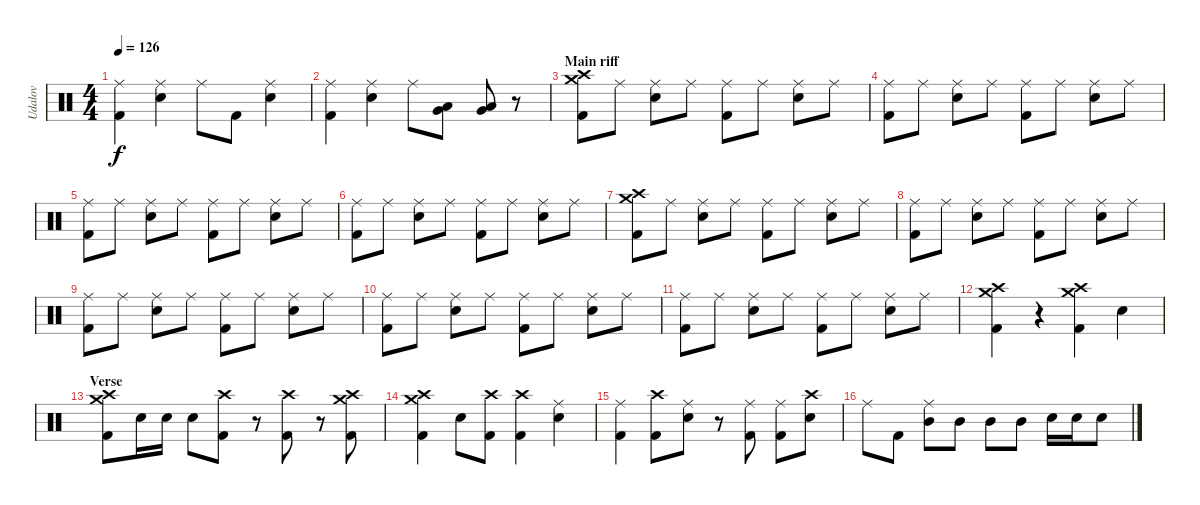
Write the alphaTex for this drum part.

\track ("Udalov" "Udalov") {instrument percussion}
\staff {score}
\articulation defaults
\ts (4 4)
\tempo 126
\clef neutral
\ks c
("Kick (hit) 2" "Ride (middle)").4{dy f} ("Snare (hit) 2" "Ride (middle)").4 "Ride (middle)".8 "Kick (hit) 2".8 ("Snare (hit) 2" "Ride (middle)").4 |
("Kick (hit) 2" "Ride (middle)").4 ("Snare (hit) 2" "Ride (middle)").4 "Ride (middle)".8 ("Low Tom (hit)" "Very Low Tom (hit)").8 ("Low Tom (hit)" "Very Low Tom (hit)").8 r.8 |
\section ("" "Main riff")
("Kick (hit) 2" "Crash high (hit)" "Crash medium (hit)").8 "Ride (middle)".8 ("Snare (hit) 2" "Ride (middle)").8 "Ride (middle)".8 ("Kick (hit) 2" "Ride (middle)").8 "Ride (middle)".8 ("Snare (hit) 2" "Ride (middle)").8 "Ride (middle)".8 |
("Kick (hit) 2" "Ride (middle)").8 "Ride (middle)".8 ("Snare (hit) 2" "Ride (middle)").8 "Ride (middle)".8 ("Kick (hit) 2" "Ride (middle)").8 "Ride (middle)".8 ("Snare (hit) 2" "Ride (middle)").8 "Ride (middle)".8 |
("Kick (hit) 2" "Ride (middle)").8 "Ride (middle)".8 ("Snare (hit) 2" "Ride (middle)").8 "Ride (middle)".8 ("Kick (hit) 2" "Ride (middle)").8 "Ride (middle)".8 ("Snare (hit) 2" "Ride (middle)").8 "Ride (middle)".8 |
("Kick (hit) 2" "Ride (middle)").8 "Ride (middle)".8 ("Snare (hit) 2" "Ride (middle)").8 "Ride (middle)".8 ("Kick (hit) 2" "Ride (middle)").8 "Ride (middle)".8 ("Snare (hit) 2" "Ride (middle)").8 "Ride (middle)".8 |
("Kick (hit) 2" "Crash high (hit)" "Crash medium (hit)").8 "Ride (middle)".8 ("Snare (hit) 2" "Ride (middle)").8 "Ride (middle)".8 ("Kick (hit) 2" "Ride (middle)").8 "Ride (middle)".8 ("Snare (hit) 2" "Ride (middle)").8 "Ride (middle)".8 |
("Kick (hit) 2" "Ride (middle)").8 "Ride (middle)".8 ("Snare (hit) 2" "Ride (middle)").8 "Ride (middle)".8 ("Kick (hit) 2" "Ride (middle)").8 "Ride (middle)".8 ("Snare (hit) 2" "Ride (middle)").8 "Ride (middle)".8 |
("Kick (hit) 2" "Ride (middle)").8 "Ride (middle)".8 ("Snare (hit) 2" "Ride (middle)").8 "Ride (middle)".8 ("Kick (hit) 2" "Ride (middle)").8 "Ride (middle)".8 ("Snare (hit) 2" "Ride (middle)").8 "Ride (middle)".8 |
("Kick (hit) 2" "Ride (middle)").8 "Ride (middle)".8 ("Snare (hit) 2" "Ride (middle)").8 "Ride (middle)".8 ("Kick (hit) 2" "Ride (middle)").8 "Ride (middle)".8 ("Snare (hit) 2" "Ride (middle)").8 "Ride (middle)".8 |
("Kick (hit) 2" "Ride (middle)").8 "Ride (middle)".8 ("Snare (hit) 2" "Ride (middle)").8 "Ride (middle)".8 ("Kick (hit) 2" "Ride (middle)").8 "Ride (middle)".8 ("Snare (hit) 2" "Ride (middle)").8 "Ride (middle)".8 |
("Kick (hit) 2" "Crash high (hit)" "Crash medium (hit)").4 r.4 ("Kick (hit) 2" "Crash medium (hit)" "Crash high (hit)").4 "Snare (hit) 2".4 |
\section ("" "Verse")
("Kick (hit) 2" "Crash high (hit)" "Crash medium (hit)").8 "Snare (hit) 2".16 "Electric Snare (hit)".16 "Snare (hit) 2".8 ("Kick (hit) 2" "Crash high (hit)").8 r.8 ("Kick (hit) 2" "Crash high (hit)").8 r.8 ("Kick (hit) 2" "Crash medium (hit)" "Crash high (hit)").8 |
("Kick (hit) 2" "Crash high (hit)" "Crash medium (hit)").4 "Snare (hit) 2".8 ("Kick (hit) 2" "Crash high (hit)").8 ("Kick (hit) 2" "Crash high (hit)").4 ("Snare (hit) 2" "Ride (middle)").4 |
("Kick (hit) 2" "Ride (middle)").4 ("Kick (hit) 2" "Crash high (hit)").8 ("Snare (hit) 2" "Ride (middle)").8 r.8 ("Kick (hit) 2" "Ride (middle)").8 ("Kick (hit) 2" "Ride (middle)").8 ("Snare (hit) 2" "Crash high (hit)").8 |
"Ride (middle)".8 "Kick (hit) 2".8 ("Mid Tom (hit)" "Ride (middle)").8 "Mid Tom (hit)".8 "Mid Tom (hit)".8 "Mid Tom (hit)".8 "Electric Snare (hit)".16 "Electric Snare (hit)".16 "Electric Snare (hit)".8
